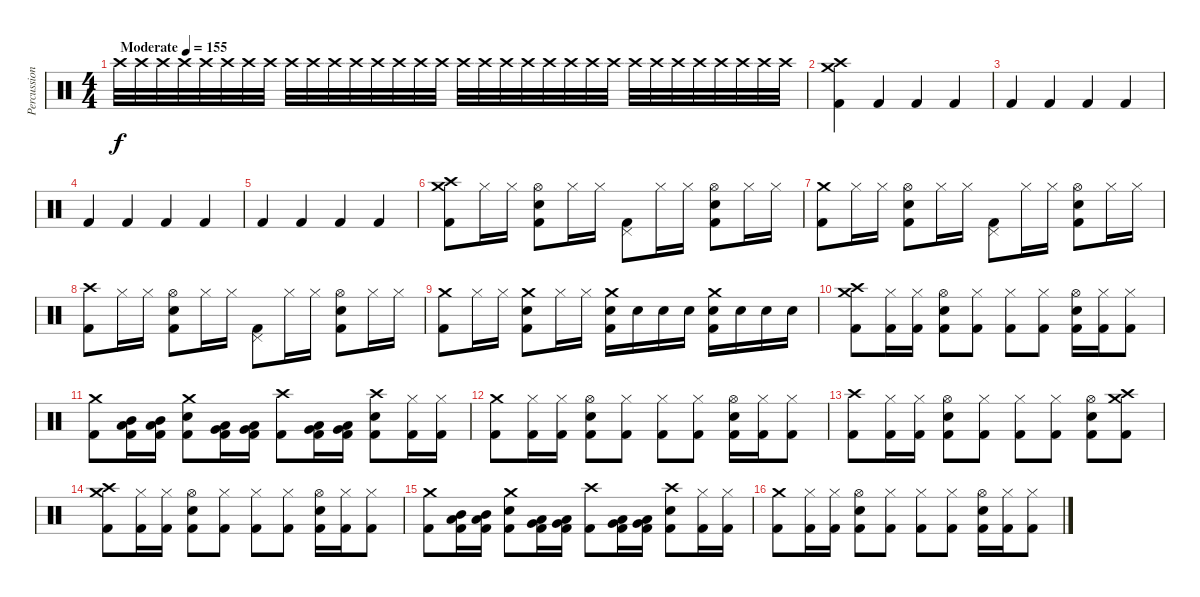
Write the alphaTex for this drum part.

\track ("Percussion" "Percussion") {instrument percussion}
\staff {score}
\articulation defaults
\ts (4 4)
\tempo (155 "Moderate")
\clef neutral
\ks c "Crash high (hit)".32{dy f volume 0} "Crash high (hit)".32{volume 13} "Crash high (hit)".32 "Crash high (hit)".32 "Crash high (hit)".32 "Crash high (hit)".32 "Crash high (hit)".32 "Crash high (hit)".32 "Crash high (hit)".32 "Crash high (hit)".32 "Crash high (hit)".32 "Crash high (hit)".32 "Crash high (hit)".32 "Crash high (hit)".32 "Crash high (hit)".32 "Crash high (hit)".32 "Crash high (hit)".32 "Crash high (hit)".32 "Crash high (hit)".32 "Crash high (hit)".32 "Crash high (hit)".32 "Crash high (hit)".32 "Crash high (hit)".32 "Crash high (hit)".32 "Crash high (hit)".32 "Crash high (hit)".32 "Crash high (hit)".32 "Crash high (hit)".32 "Crash high (hit)".32 "Crash high (hit)".32 "Crash high (hit)".32 "Crash high (hit)".32
|
("Crash medium (hit)" "Crash high (hit)" "Kick (hit) 2").4 "Kick (hit) 2".4 "Kick (hit) 2".4 "Kick (hit) 2".4 |
"Kick (hit) 2".4 "Kick (hit) 2".4 "Kick (hit) 2".4 "Kick (hit) 2".4 |
"Kick (hit) 2".4 "Kick (hit) 2".4 "Kick (hit) 2".4 "Kick (hit) 2".4 |
"Kick (hit) 2".4 "Kick (hit) 2".4 "Kick (hit) 2".4 "Kick (hit) 2".4 |
("Crash medium (hit)" "Crash high (hit)" "Kick (hit) 2").8 "Hi-Hat (closed)".16 "Hi-Hat (closed)".16 ("Hi-Hat (open)" "Electric Snare (hit)" "Kick (hit) 2").8 "Hi-Hat (closed)".16 "Hi-Hat (closed)".16 ("Pedal Hi-Hat (hit)" "Kick (hit) 2").8 "Hi-Hat (closed)".16 "Hi-Hat (closed)".16 ("Hi-Hat (open)" "Electric Snare (hit)" "Kick (hit) 2").8 "Hi-Hat (closed)".16 "Hi-Hat (closed)".16 |
("Crash medium (hit)" "Kick (hit) 2").8 "Hi-Hat (closed)".16 "Hi-Hat (closed)".16 ("Hi-Hat (open)" "Electric Snare (hit)" "Kick (hit) 2").8 "Hi-Hat (closed)".16 "Hi-Hat (closed)".16 ("Pedal Hi-Hat (hit)" "Kick (hit) 2").8 "Hi-Hat (closed)".16 "Hi-Hat (closed)".16 ("Hi-Hat (open)" "Electric Snare (hit)" "Kick (hit) 2").8 "Hi-Hat (closed)".16 "Hi-Hat (closed)".16 |
("Crash high (hit)" "Kick (hit) 2").8 "Hi-Hat (closed)".16 "Hi-Hat (closed)".16 ("Hi-Hat (open)" "Electric Snare (hit)" "Kick (hit) 2").8 "Hi-Hat (closed)".16 "Hi-Hat (closed)".16 ("Pedal Hi-Hat (hit)" "Kick (hit) 2").8 "Hi-Hat (closed)".16 "Hi-Hat (closed)".16 ("Hi-Hat (open)" "Electric Snare (hit)" "Kick (hit) 2").8 "Hi-Hat (closed)".16 "Hi-Hat (closed)".16 |
("Crash medium (hit)" "Kick (hit) 2").8 "Hi-Hat (closed)".16 "Hi-Hat (closed)".16 ("Crash medium (hit)" "Electric Snare (hit)" "Kick (hit) 2").8 "Hi-Hat (closed)".16 "Hi-Hat (closed)".16 ("Crash medium (hit)" "Electric Snare (hit)" "Kick (hit) 2").16 "Electric Snare (hit)".16 "Electric Snare (hit)".16 "Electric Snare (hit)".16 ("Crash medium (hit)" "Electric Snare (hit)" "Kick (hit) 2").16 "Electric Snare (hit)".16 "Electric Snare (hit)".16 "Electric Snare (hit)".16 |
("Crash high (hit)" "Crash medium (hit)" "Kick (hit) 2").8 ("Hi-Hat (closed)" "Kick (hit) 2").16 ("Hi-Hat (closed)" "Kick (hit) 2").16 ("Hi-Hat (open)" "Electric Snare (hit)" "Kick (hit) 2").8 ("Hi-Hat (closed)" "Kick (hit) 2").8 ("Hi-Hat (closed)" "Kick (hit) 2").8 ("Hi-Hat (closed)" "Kick (hit) 2").8 ("Hi-Hat (open)" "Electric Snare (hit)" "Kick (hit) 2").16 ("Hi-Hat (closed)" "Kick (hit) 2").16 ("Hi-Hat (closed)" "Kick (hit) 2").8 |
("Crash medium (hit)" "Kick (hit) 2").8 ("Mid Tom (hit)" "Low Tom (hit)" "Kick (hit) 2").16 ("Mid Tom (hit)" "Low Tom (hit)" "Kick (hit) 2").16 ("Crash medium (hit)" "Electric Snare (hit)" "Kick (hit) 2").8 ("Low Tom (hit)" "Very Low Tom (hit)" "Kick (hit) 2").16 ("Low Tom (hit)" "Very Low Tom (hit)" "Kick (hit) 2").16 ("Crash high (hit)" "Kick (hit) 2").8 ("Very Low Tom (hit)" "Low Floor Tom (hit)" "Kick (hit) 2").16 ("Very Low Tom (hit)" "Low Floor Tom (hit)" "Kick (hit) 2").16 ("Crash high (hit)" "Electric Snare (hit)" "Kick (hit) 2").8 ("Hi-Hat (closed)" "Kick (hit) 2").16 ("Hi-Hat (closed)" "Kick (hit) 2").16 |
("Crash medium (hit)" "Kick (hit) 2").8 ("Hi-Hat (closed)" "Kick (hit) 2").16 ("Hi-Hat (closed)" "Kick (hit) 2").16 ("Hi-Hat (open)" "Electric Snare (hit)" "Kick (hit) 2").8 ("Hi-Hat (closed)" "Kick (hit) 2").8 ("Hi-Hat (closed)" "Kick (hit) 2").8 ("Hi-Hat (closed)" "Kick (hit) 2").8 ("Hi-Hat (open)" "Electric Snare (hit)" "Kick (hit) 2").16 ("Hi-Hat (closed)" "Kick (hit) 2").16 ("Hi-Hat (closed)" "Kick (hit) 2").8 |
("Crash high (hit)" "Kick (hit) 2").8 ("Hi-Hat (closed)" "Kick (hit) 2").16 ("Hi-Hat (closed)" "Kick (hit) 2").16 ("Hi-Hat (open)" "Electric Snare (hit)" "Kick (hit) 2").8 ("Hi-Hat (closed)" "Kick (hit) 2").8 ("Hi-Hat (closed)" "Kick (hit) 2").8 ("Hi-Hat (closed)" "Kick (hit) 2").8 ("Hi-Hat (open)" "Electric Snare (hit)" "Kick (hit) 2").8 ("Crash high (hit)" "Crash medium (hit)" "Kick (hit) 2").8 |
("Crash high (hit)" "Crash medium (hit)" "Kick (hit) 2").8 ("Hi-Hat (closed)" "Kick (hit) 2").16 ("Hi-Hat (closed)" "Kick (hit) 2").16 ("Hi-Hat (open)" "Electric Snare (hit)" "Kick (hit) 2").8 ("Hi-Hat (closed)" "Kick (hit) 2").8 ("Hi-Hat (closed)" "Kick (hit) 2").8 ("Hi-Hat (closed)" "Kick (hit) 2").8 ("Hi-Hat (open)" "Electric Snare (hit)" "Kick (hit) 2").16 ("Hi-Hat (closed)" "Kick (hit) 2").16 ("Hi-Hat (closed)" "Kick (hit) 2").8 |
("Crash medium (hit)" "Kick (hit) 2").8 ("Mid Tom (hit)" "Low Tom (hit)" "Kick (hit) 2").16 ("Mid Tom (hit)" "Low Tom (hit)" "Kick (hit) 2").16 ("Crash medium (hit)" "Electric Snare (hit)" "Kick (hit) 2").8 ("Low Tom (hit)" "Very Low Tom (hit)" "Kick (hit) 2").16 ("Low Tom (hit)" "Very Low Tom (hit)" "Kick (hit) 2").16 ("Crash high (hit)" "Kick (hit) 2").8 ("Very Low Tom (hit)" "Low Floor Tom (hit)" "Kick (hit) 2").16 ("Very Low Tom (hit)" "Low Floor Tom (hit)" "Kick (hit) 2").16 ("Crash high (hit)" "Electric Snare (hit)" "Kick (hit) 2").8 ("Hi-Hat (closed)" "Kick (hit) 2").16 ("Hi-Hat (closed)" "Kick (hit) 2").16 |
("Crash medium (hit)" "Kick (hit) 2").8 ("Hi-Hat (closed)" "Kick (hit) 2").16 ("Hi-Hat (closed)" "Kick (hit) 2").16 ("Hi-Hat (open)" "Electric Snare (hit)" "Kick (hit) 2").8 ("Hi-Hat (closed)" "Kick (hit) 2").8 ("Hi-Hat (closed)" "Kick (hit) 2").8 ("Hi-Hat (closed)" "Kick (hit) 2").8 ("Hi-Hat (open)" "Electric Snare (hit)" "Kick (hit) 2").16 ("Hi-Hat (closed)" "Kick (hit) 2").16 ("Hi-Hat (closed)" "Kick (hit) 2").8
